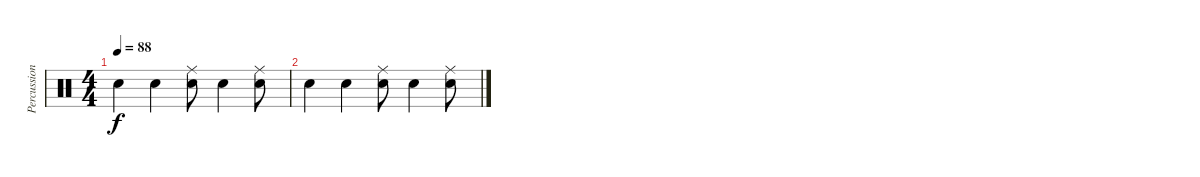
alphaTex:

\track ("Percussions" "Percussion") {instrument percussion}
\staff {score}
\articulation defaults
\ts (4 4)
\tempo 88
\clef neutral
\ks c "Electric Snare (hit)".4{dy f} "Electric Snare (hit)".4
("Electric Snare (hit)" "Ride (middle)").8 "Electric Snare (hit)".4 ("Electric Snare (hit)" "Ride (middle)").8 |
"Electric Snare (hit)".4 "Electric Snare (hit)".4 ("Electric Snare (hit)" "Ride (middle)").8 "Electric Snare (hit)".4 ("Electric Snare (hit)" "Ride (middle)").8
